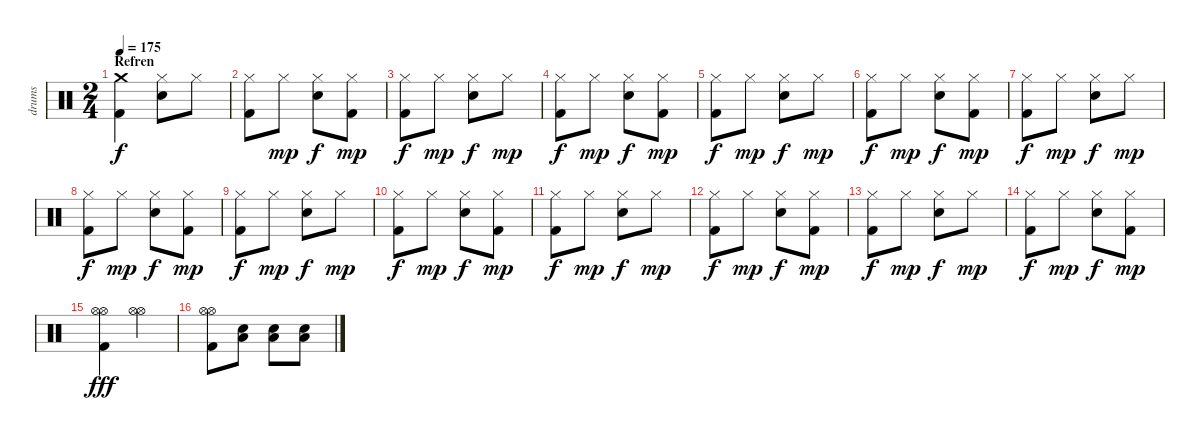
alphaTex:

\track ("drums" "drums") {instrument percussion}
\staff {score}
\articulation defaults
\ts (2 4)
\section ("" "Refren")
\tempo 175
\clef neutral
\ks c
("Crash medium (hit)" "Kick (hit) 2").4{dy f} ("Hi-Hat (closed)" "Snare (hit) 2").8 "Hi-Hat (closed)".8 |
("Hi-Hat (closed)" "Kick (hit) 2").8 "Hi-Hat (closed)".8{dy mp} ("Hi-Hat (closed)" "Snare (hit) 2").8{dy f} ("Hi-Hat (closed)" "Kick (hit) 2").8{dy mp} |
("Hi-Hat (closed)" "Kick (hit) 2").8{dy f} "Hi-Hat (closed)".8{dy mp} ("Hi-Hat (closed)" "Snare (hit) 2").8{dy f} "Hi-Hat (closed)".8{dy mp} |
("Hi-Hat (closed)" "Kick (hit) 2").8{dy f} "Hi-Hat (closed)".8{dy mp} ("Hi-Hat (closed)" "Snare (hit) 2").8{dy f} ("Hi-Hat (closed)" "Kick (hit) 2").8{dy mp} |
("Hi-Hat (closed)" "Kick (hit) 2").8{dy f} "Hi-Hat (closed)".8{dy mp} ("Hi-Hat (closed)" "Snare (hit) 2").8{dy f} "Hi-Hat (closed)".8{dy mp} |
("Hi-Hat (closed)" "Kick (hit) 2").8{dy f} "Hi-Hat (closed)".8{dy mp} ("Hi-Hat (closed)" "Snare (hit) 2").8{dy f} ("Hi-Hat (closed)" "Kick (hit) 2").8{dy mp} |
("Hi-Hat (closed)" "Kick (hit) 2").8{dy f} "Hi-Hat (closed)".8{dy mp} ("Hi-Hat (closed)" "Snare (hit) 2").8{dy f} "Hi-Hat (closed)".8{dy mp} |
("Hi-Hat (closed)" "Kick (hit) 2").8{dy f} "Hi-Hat (closed)".8{dy mp} ("Hi-Hat (closed)" "Snare (hit) 2").8{dy f} ("Hi-Hat (closed)" "Kick (hit) 2").8{dy mp} |
("Hi-Hat (closed)" "Kick (hit) 2").8{dy f} "Hi-Hat (closed)".8{dy mp} ("Hi-Hat (closed)" "Snare (hit) 2").8{dy f} "Hi-Hat (closed)".8{dy mp} |
("Hi-Hat (closed)" "Kick (hit) 2").8{dy f} "Hi-Hat (closed)".8{dy mp} ("Hi-Hat (closed)" "Snare (hit) 2").8{dy f} ("Hi-Hat (closed)" "Kick (hit) 2").8{dy mp} |
("Hi-Hat (closed)" "Kick (hit) 2").8{dy f} "Hi-Hat (closed)".8{dy mp} ("Hi-Hat (closed)" "Snare (hit) 2").8{dy f} "Hi-Hat (closed)".8{dy mp} |
("Hi-Hat (closed)" "Kick (hit) 2").8{dy f} "Hi-Hat (closed)".8{dy mp} ("Hi-Hat (closed)" "Snare (hit) 2").8{dy f} ("Hi-Hat (closed)" "Kick (hit) 2").8{dy mp} |
("Hi-Hat (closed)" "Kick (hit) 2").8{dy f} "Hi-Hat (closed)".8{dy mp} ("Hi-Hat (closed)" "Snare (hit) 2").8{dy f} "Hi-Hat (closed)".8{dy mp} |
("Hi-Hat (closed)" "Kick (hit) 2").8{dy f} "Hi-Hat (closed)".8{dy mp} ("Hi-Hat (closed)" "Snare (hit) 2").8{dy f} ("Hi-Hat (closed)" "Kick (hit) 2").8{dy mp} |
("Hi-Hat (open)" "Hi-Hat (open)" "Kick (hit) 2").4{dy fff} ("Hi-Hat (open)" "Hi-Hat (open)").4 |
("Hi-Hat (open)" "Hi-Hat (open)" "Kick (hit) 2").8 ("Snare (hit) 2" "Low Tom (hit)").8 ("Snare (hit) 2" "Low Tom (hit)").8 ("Snare (hit) 2" "Low Tom (hit)").8
